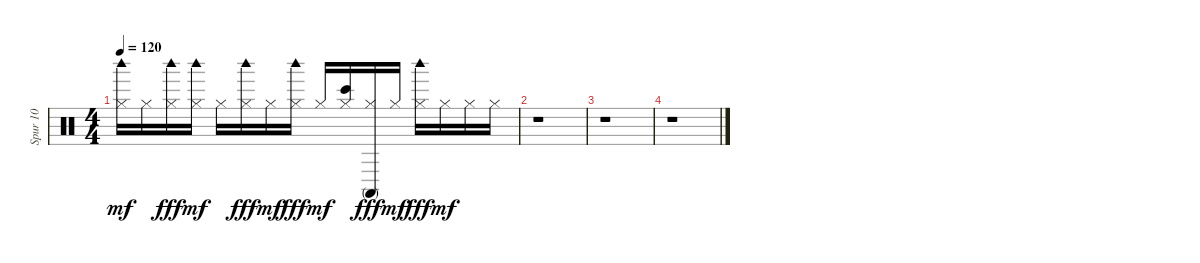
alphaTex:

\track ("Spur 10" "Spur 10") {instrument percussion}
\staff {score}
\articulation defaults
\ts (4 4)
\tempo 120
\clef neutral
\ks c
("Woodblock high (hit)" "Hi-Hat (closed)").16{dy mf} "Hi-Hat (closed)".16 ("Hi-Hat (closed)" "Woodblock high (hit)").16{dy fff} ("Woodblock high (hit)" "Hi-Hat (closed)").16{dy mf} "Hi-Hat (closed)".16 ("Hi-Hat (closed)" "Woodblock high (hit)").16{dy fff} "Hi-Hat (closed)".16{dy mf} ("Hi-Hat (closed)" "Woodblock high (hit)").16{dy fff} "Hi-Hat (closed)".16{dy mf} ("Bongo High (hit)" "Hi-Hat (closed)").16 ("Hi-Hat (closed)" "Conga high (mute)").16{dy fff} "Hi-Hat (closed)".16{dy mf} ("Hi-Hat (closed)" "Woodblock high (hit)").16{dy fff} "Hi-Hat (closed)".16{dy mf} "Hi-Hat (closed)".16 "Hi-Hat (closed)".16 |
r.1 |
r.1 |
r.1
